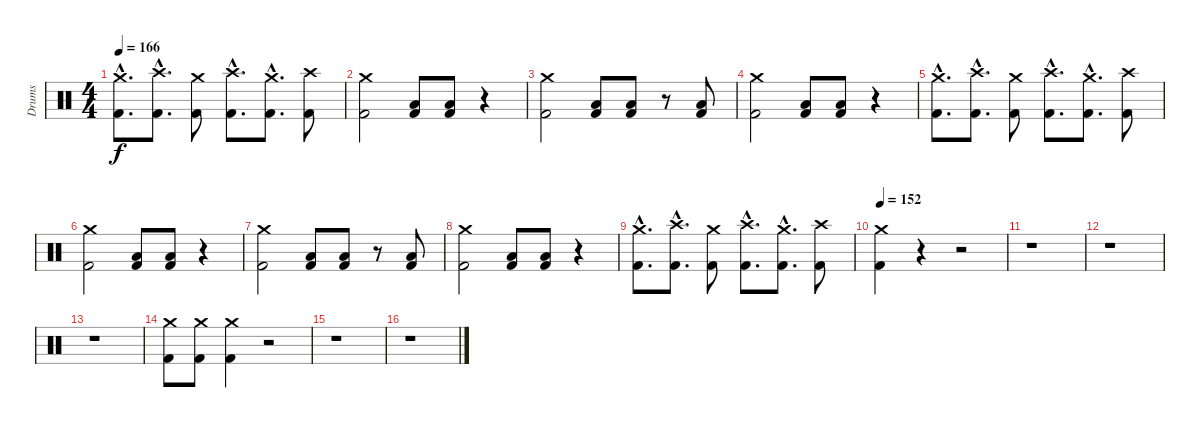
\track ("Drums" "Drums") {instrument percussion}
\staff {score}
\articulation defaults
\ts (4 4)
\tempo 166
\clef neutral
\ks c
("Crash medium (hit)"{hac} "Kick (hit) 2"{hac}).8{d dy f} ("Crash high (hit)"{hac} "Kick (hit) 2"{hac}).8{d} ("Crash medium (hit)" "Kick (hit) 2").8 ("Crash high (hit)"{hac} "Kick (hit) 2"{hac}).8{d} ("Crash medium (hit)"{hac} "Kick (hit) 2"{hac}).8{d} ("Crash high (hit)" "Kick (hit) 2").8 |
("Crash medium (hit)" "Kick (hit) 2").2 ("Low Tom (hit)" "Kick (hit) 2").8 ("Low Tom (hit)" "Kick (hit) 2").8 r.4 |
("Crash medium (hit)" "Kick (hit) 2").2 ("Low Tom (hit)" "Kick (hit) 2").8 ("Low Tom (hit)" "Kick (hit) 2").8 r.8 ("Low Tom (hit)" "Kick (hit) 2").8 |
("Crash medium (hit)" "Kick (hit) 2").2 ("Low Tom (hit)" "Kick (hit) 2").8 ("Low Tom (hit)" "Kick (hit) 2").8 r.4 |
("Crash medium (hit)"{hac} "Kick (hit) 2"{hac}).8{d} ("Crash high (hit)"{hac} "Kick (hit) 2"{hac}).8{d} ("Crash medium (hit)" "Kick (hit) 2").8 ("Crash high (hit)"{hac} "Kick (hit) 2"{hac}).8{d} ("Crash medium (hit)"{hac} "Kick (hit) 2"{hac}).8{d} ("Crash high (hit)" "Kick (hit) 2").8 |
("Crash medium (hit)" "Kick (hit) 2").2 ("Low Tom (hit)" "Kick (hit) 2").8 ("Low Tom (hit)" "Kick (hit) 2").8 r.4 |
("Crash medium (hit)" "Kick (hit) 2").2 ("Low Tom (hit)" "Kick (hit) 2").8 ("Low Tom (hit)" "Kick (hit) 2").8 r.8 ("Low Tom (hit)" "Kick (hit) 2").8 |
("Crash medium (hit)" "Kick (hit) 2").2 ("Low Tom (hit)" "Kick (hit) 2").8 ("Low Tom (hit)" "Kick (hit) 2").8 r.4 |
("Crash medium (hit)"{hac} "Kick (hit) 2"{hac}).8{d} ("Crash high (hit)"{hac} "Kick (hit) 2"{hac}).8{d} ("Crash medium (hit)" "Kick (hit) 2").8 ("Crash high (hit)"{hac} "Kick (hit) 2"{hac}).8{d} ("Crash medium (hit)"{hac} "Kick (hit) 2"{hac}).8{d} ("Crash high (hit)" "Kick (hit) 2").8 |
\tempo 152
("Crash medium (hit)" "Kick (hit) 2").4 r.4 r.2 |
r.1 |
r.1 |
r.1 |
("Crash medium (hit)" "Kick (hit) 2").8 ("Crash medium (hit)" "Kick (hit) 2").8 ("Crash medium (hit)" "Kick (hit) 2").4 r.2 |
r.1 |
r.1
